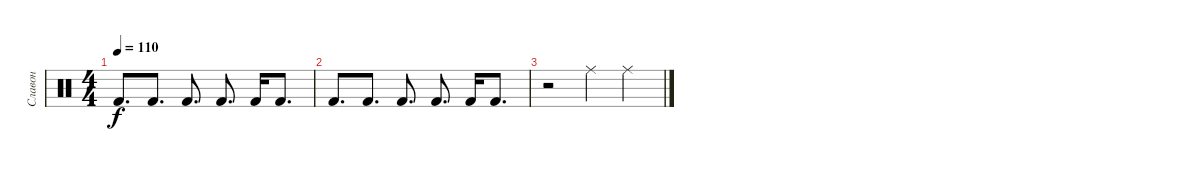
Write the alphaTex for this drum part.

\track ("Славон" "Славон") {instrument percussion}
\staff {score}
\articulation defaults
\ts (4 4)
\tempo 110
\clef neutral
\ks c "Kick (hit) 2".8{d dy f} "Kick (hit) 2".8{d} "Kick (hit) 2".8{d} "Kick (hit) 2".8{d} "Kick (hit) 2".16 "Kick (hit) 2".8{d}
|
"Kick (hit) 2".8{d} "Kick (hit) 2".8{d} "Kick (hit) 2".8{d} "Kick (hit) 2".8{d} "Kick (hit) 2".16 "Kick (hit) 2".8{d} |
r.2 "Ride (middle)".4 "Ride (middle)".4
